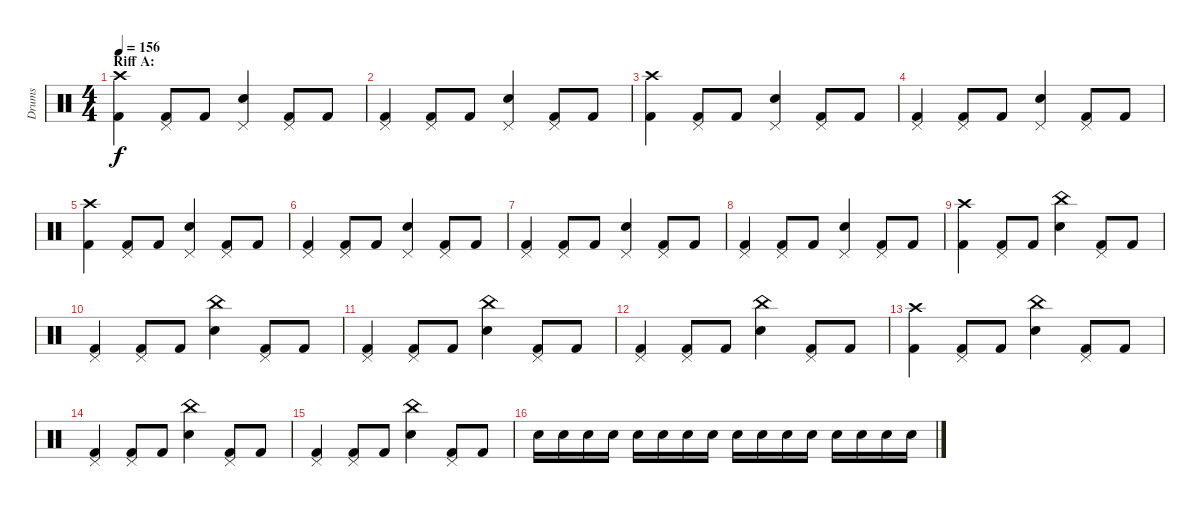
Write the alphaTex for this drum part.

\track ("Drums" "Drums") {instrument percussion}
\staff {score}
\articulation defaults
\ts (4 4)
\section ("" "Riff A:")
\tempo 156
\clef neutral
\ks c
("Crash high (hit)" "Kick (hit) 2").4{dy f} ("Pedal Hi-Hat (hit)" "Kick (hit) 2").8 "Kick (hit) 2".8 ("Pedal Hi-Hat (hit)" "Electric Snare (hit)").4 ("Pedal Hi-Hat (hit)" "Kick (hit) 2").8 "Kick (hit) 2".8 |
("Pedal Hi-Hat (hit)" "Kick (hit) 2").4 ("Pedal Hi-Hat (hit)" "Kick (hit) 2").8 "Kick (hit) 2".8 ("Pedal Hi-Hat (hit)" "Electric Snare (hit)").4 ("Pedal Hi-Hat (hit)" "Kick (hit) 2").8 "Kick (hit) 2".8 |
("Crash high (hit)" "Kick (hit) 2").4 ("Pedal Hi-Hat (hit)" "Kick (hit) 2").8 "Kick (hit) 2".8 ("Pedal Hi-Hat (hit)" "Electric Snare (hit)").4 ("Pedal Hi-Hat (hit)" "Kick (hit) 2").8 "Kick (hit) 2".8 |
("Pedal Hi-Hat (hit)" "Kick (hit) 2").4 ("Pedal Hi-Hat (hit)" "Kick (hit) 2").8 "Kick (hit) 2".8 ("Pedal Hi-Hat (hit)" "Electric Snare (hit)").4 ("Pedal Hi-Hat (hit)" "Kick (hit) 2").8 "Kick (hit) 2".8 |
("Crash high (hit)" "Kick (hit) 2").4 ("Pedal Hi-Hat (hit)" "Kick (hit) 2").8 "Kick (hit) 2".8 ("Pedal Hi-Hat (hit)" "Electric Snare (hit)").4 ("Pedal Hi-Hat (hit)" "Kick (hit) 2").8 "Kick (hit) 2".8 |
("Pedal Hi-Hat (hit)" "Kick (hit) 2").4 ("Pedal Hi-Hat (hit)" "Kick (hit) 2").8 "Kick (hit) 2".8 ("Pedal Hi-Hat (hit)" "Electric Snare (hit)").4 ("Pedal Hi-Hat (hit)" "Kick (hit) 2").8 "Kick (hit) 2".8 |
("Pedal Hi-Hat (hit)" "Kick (hit) 2").4 ("Pedal Hi-Hat (hit)" "Kick (hit) 2").8 "Kick (hit) 2".8 ("Pedal Hi-Hat (hit)" "Electric Snare (hit)").4 ("Pedal Hi-Hat (hit)" "Kick (hit) 2").8 "Kick (hit) 2".8 |
("Pedal Hi-Hat (hit)" "Kick (hit) 2").4 ("Pedal Hi-Hat (hit)" "Kick (hit) 2").8 "Kick (hit) 2".8 ("Pedal Hi-Hat (hit)" "Electric Snare (hit)").4 ("Pedal Hi-Hat (hit)" "Kick (hit) 2").8 "Kick (hit) 2".8 |
("Crash high (hit)" "Kick (hit) 2").4 ("Pedal Hi-Hat (hit)" "Kick (hit) 2").8 "Kick (hit) 2".8 ("China (hit)" "Electric Snare (hit)").4 ("Pedal Hi-Hat (hit)" "Kick (hit) 2").8 "Kick (hit) 2".8 |
("Pedal Hi-Hat (hit)" "Kick (hit) 2").4 ("Pedal Hi-Hat (hit)" "Kick (hit) 2").8 "Kick (hit) 2".8 ("China (hit)" "Electric Snare (hit)").4 ("Pedal Hi-Hat (hit)" "Kick (hit) 2").8 "Kick (hit) 2".8 |
("Pedal Hi-Hat (hit)" "Kick (hit) 2").4 ("Pedal Hi-Hat (hit)" "Kick (hit) 2").8 "Kick (hit) 2".8 ("China (hit)" "Electric Snare (hit)").4 ("Pedal Hi-Hat (hit)" "Kick (hit) 2").8 "Kick (hit) 2".8 |
("Pedal Hi-Hat (hit)" "Kick (hit) 2").4 ("Pedal Hi-Hat (hit)" "Kick (hit) 2").8 "Kick (hit) 2".8 ("China (hit)" "Electric Snare (hit)").4 ("Pedal Hi-Hat (hit)" "Kick (hit) 2").8 "Kick (hit) 2".8 |
("Crash high (hit)" "Kick (hit) 2").4 ("Pedal Hi-Hat (hit)" "Kick (hit) 2").8 "Kick (hit) 2".8 ("China (hit)" "Electric Snare (hit)").4 ("Pedal Hi-Hat (hit)" "Kick (hit) 2").8 "Kick (hit) 2".8 |
("Pedal Hi-Hat (hit)" "Kick (hit) 2").4 ("Pedal Hi-Hat (hit)" "Kick (hit) 2").8 "Kick (hit) 2".8 ("China (hit)" "Electric Snare (hit)").4 ("Pedal Hi-Hat (hit)" "Kick (hit) 2").8 "Kick (hit) 2".8 |
("Pedal Hi-Hat (hit)" "Kick (hit) 2").4 ("Pedal Hi-Hat (hit)" "Kick (hit) 2").8 "Kick (hit) 2".8 ("China (hit)" "Electric Snare (hit)").4 ("Pedal Hi-Hat (hit)" "Kick (hit) 2").8 "Kick (hit) 2".8 |
"Electric Snare (hit)".16 "Electric Snare (hit)".16 "Electric Snare (hit)".16 "Electric Snare (hit)".16 "Electric Snare (hit)".16 "Electric Snare (hit)".16 "Electric Snare (hit)".16 "Electric Snare (hit)".16 "Electric Snare (hit)".16 "Electric Snare (hit)".16 "Electric Snare (hit)".16 "Electric Snare (hit)".16 "Electric Snare (hit)".16 "Electric Snare (hit)".16 "Electric Snare (hit)".16 "Electric Snare (hit)".16
